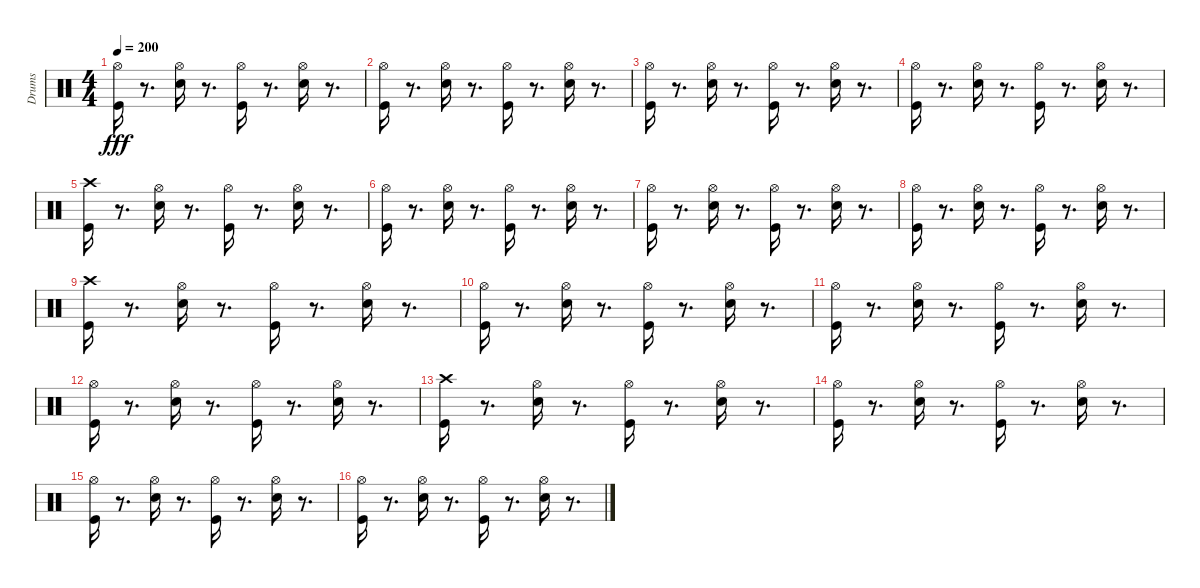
\track ("Drums" "Drums") {instrument percussion}
\staff {score}
\articulation defaults
\ts (4 4)
\tempo 200
\clef neutral
\ks c
("Kick (hit)" "Hi-Hat (open)").16{dy fff} r.8{d} ("Hi-Hat (open)" "Snare (hit) 2").16 r.8{d} ("Hi-Hat (open)" "Kick (hit)").16 r.8{d} ("Hi-Hat (open)" "Snare (hit) 2").16 r.8{d} |
("Hi-Hat (open)" "Kick (hit)").16 r.8{d} ("Snare (hit) 2" "Hi-Hat (open)").16 r.8{d} ("Hi-Hat (open)" "Kick (hit)").16 r.8{d} ("Hi-Hat (open)" "Snare (hit) 2").16 r.8{d} |
("Hi-Hat (open)" "Kick (hit)").16 r.8{d} ("Snare (hit) 2" "Hi-Hat (open)").16 r.8{d} ("Kick (hit)" "Hi-Hat (open)").16 r.8{d} ("Snare (hit) 2" "Hi-Hat (open)").16 r.8{d} |
("Kick (hit)" "Hi-Hat (open)").16 r.8{d} ("Hi-Hat (open)" "Snare (hit) 2").16 r.8{d} ("Kick (hit)" "Hi-Hat (open)").16 r.8{d} ("Hi-Hat (open)" "Snare (hit) 2").16 r.8{d} |
("Kick (hit)" "Crash high (hit)").16 r.8{d} ("Hi-Hat (open)" "Snare (hit) 2").16 r.8{d} ("Kick (hit)" "Hi-Hat (open)").16 r.8{d} ("Hi-Hat (open)" "Snare (hit) 2").16 r.8{d} |
("Hi-Hat (open)" "Kick (hit)").16 r.8{d} ("Hi-Hat (open)" "Snare (hit) 2").16 r.8{d} ("Hi-Hat (open)" "Kick (hit)").16 r.8{d} ("Snare (hit) 2" "Hi-Hat (open)").16 r.8{d} |
("Hi-Hat (open)" "Kick (hit)").16 r.8{d} ("Hi-Hat (open)" "Snare (hit) 2").16 r.8{d} ("Hi-Hat (open)" "Kick (hit)").16 r.8{d} ("Snare (hit) 2" "Hi-Hat (open)").16 r.8{d} |
("Kick (hit)" "Hi-Hat (open)").16 r.8{d} ("Snare (hit) 2" "Hi-Hat (open)").16 r.8{d} ("Kick (hit)" "Hi-Hat (open)").16 r.8{d} ("Hi-Hat (open)" "Snare (hit) 2").16 r.8{d} |
("Crash high (hit)" "Kick (hit)").16 r.8{d} ("Hi-Hat (open)" "Snare (hit) 2").16 r.8{d} ("Kick (hit)" "Hi-Hat (open)").16 r.8{d} ("Snare (hit) 2" "Hi-Hat (open)").16 r.8{d} |
("Kick (hit)" "Hi-Hat (open)").16 r.8{d} ("Hi-Hat (open)" "Snare (hit) 2").16 r.8{d} ("Hi-Hat (open)" "Kick (hit)").16 r.8{d} ("Snare (hit) 2" "Hi-Hat (open)").16 r.8{d} |
("Hi-Hat (open)" "Kick (hit)").16 r.8{d} ("Snare (hit) 2" "Hi-Hat (open)").16 r.8{d} ("Hi-Hat (open)" "Kick (hit)").16 r.8{d} ("Snare (hit) 2" "Hi-Hat (open)").16 r.8{d} |
("Hi-Hat (open)" "Kick (hit)").16 r.8{d} ("Snare (hit) 2" "Hi-Hat (open)").16 r.8{d} ("Hi-Hat (open)" "Kick (hit)").16 r.8{d} ("Hi-Hat (open)" "Snare (hit) 2").16 r.8{d} |
("Crash high (hit)" "Kick (hit)").16 r.8{d} ("Hi-Hat (open)" "Snare (hit) 2").16 r.8{d} ("Hi-Hat (open)" "Kick (hit)").16 r.8{d} ("Snare (hit) 2" "Hi-Hat (open)").16 r.8{d} |
("Kick (hit)" "Hi-Hat (open)").16 r.8{d} ("Snare (hit) 2" "Hi-Hat (open)").16 r.8{d} ("Kick (hit)" "Hi-Hat (open)").16 r.8{d} ("Snare (hit) 2" "Hi-Hat (open)").16 r.8{d} |
("Hi-Hat (open)" "Kick (hit)").16 r.8{d} ("Hi-Hat (open)" "Snare (hit) 2").16 r.8{d} ("Hi-Hat (open)" "Kick (hit)").16 r.8{d} ("Hi-Hat (open)" "Snare (hit) 2").16 r.8{d} |
("Kick (hit)" "Hi-Hat (open)").16 r.8{d} ("Snare (hit) 2" "Hi-Hat (open)").16 r.8{d} ("Hi-Hat (open)" "Kick (hit)").16 r.8{d} ("Snare (hit) 2" "Hi-Hat (open)").16 r.8{d}
